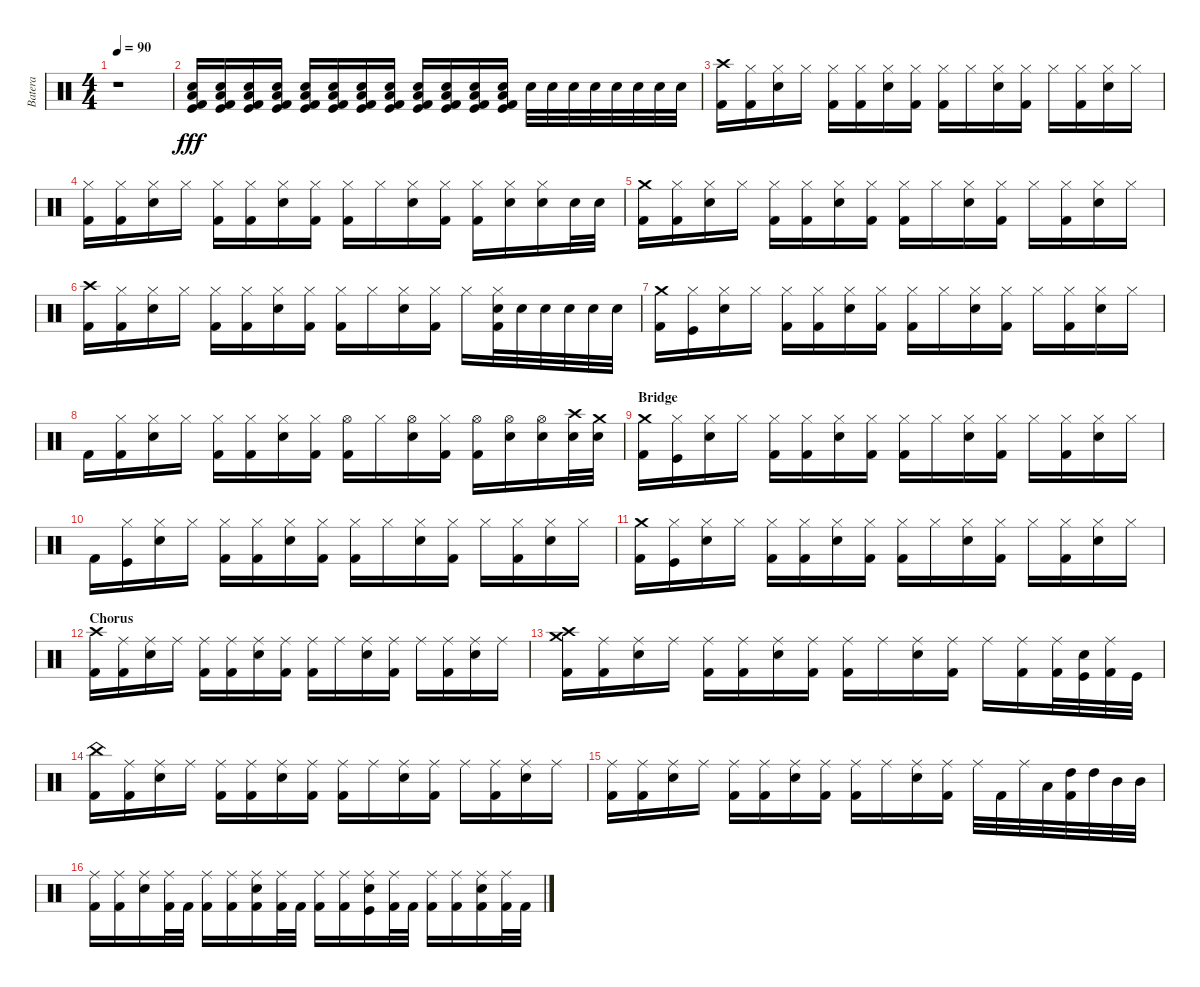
\track ("Batera" "Batera") {instrument percussion}
\staff {score}
\articulation defaults
\ts (4 4)
\tempo 90
\clef neutral
\ks c
r.1{dy fff volume 0} |
("Snare (hit) 2" "Low Floor Tom (hit)" "Kick (hit) 2" "Kick (hit)").16{volume 16} ("Snare (hit) 2" "Low Floor Tom (hit)" "Kick (hit) 2" "Kick (hit)").16 ("Snare (hit) 2" "Low Floor Tom (hit)" "Kick (hit) 2" "Kick (hit)").16 ("Snare (hit) 2" "Low Floor Tom (hit)" "Kick (hit) 2" "Kick (hit)").16 ("Snare (hit) 2" "Low Floor Tom (hit)" "Kick (hit) 2" "Kick (hit)").16 ("Snare (hit) 2" "Low Floor Tom (hit)" "Kick (hit) 2" "Kick (hit)").16 ("Snare (hit) 2" "Low Floor Tom (hit)" "Kick (hit) 2" "Kick (hit)").16 ("Snare (hit) 2" "Low Floor Tom (hit)" "Kick (hit) 2" "Kick (hit)").16 ("Snare (hit) 2" "Low Floor Tom (hit)" "Kick (hit) 2" "Kick (hit)").16 ("Snare (hit) 2" "Low Floor Tom (hit)" "Kick (hit) 2" "Kick (hit)").16 ("Snare (hit) 2" "Low Floor Tom (hit)" "Kick (hit) 2" "Kick (hit)").16 ("Snare (hit) 2" "Low Floor Tom (hit)" "Kick (hit) 2" "Kick (hit)").16 "Snare (hit) 2".32 "Snare (hit) 2".32 "Snare (hit) 2".32 "Snare (hit) 2".32 "Snare (hit) 2".32 "Snare (hit) 2".32 "Snare (hit) 2".32 "Snare (hit) 2".32 |
("Crash high (hit)" "Kick (hit) 2").16 ("Kick (hit) 2" "Hi-Hat (closed)").16 ("Snare (hit) 2" "Hi-Hat (closed)").16 "Hi-Hat (closed)".16 ("Kick (hit) 2" "Hi-Hat (closed)").16 ("Kick (hit) 2" "Hi-Hat (closed)").16 ("Snare (hit) 2" "Hi-Hat (closed)").16 ("Kick (hit) 2" "Hi-Hat (closed)").16 ("Kick (hit) 2" "Hi-Hat (closed)").16 "Hi-Hat (closed)".16 ("Snare (hit) 2" "Hi-Hat (closed)").16 ("Kick (hit) 2" "Hi-Hat (closed)").16 "Hi-Hat (closed)".16 ("Kick (hit) 2" "Hi-Hat (closed)").16 ("Snare (hit) 2" "Hi-Hat (closed)").16 "Hi-Hat (closed)".16 |
("Kick (hit) 2" "Hi-Hat (closed)").16 ("Kick (hit) 2" "Hi-Hat (closed)").16 ("Snare (hit) 2" "Hi-Hat (closed)").16 "Hi-Hat (closed)".16 ("Kick (hit) 2" "Hi-Hat (closed)").16 ("Kick (hit) 2" "Hi-Hat (closed)").16 ("Snare (hit) 2" "Hi-Hat (closed)").16 ("Kick (hit) 2" "Hi-Hat (closed)").16 ("Kick (hit) 2" "Hi-Hat (closed)").16 "Hi-Hat (closed)".16 ("Snare (hit) 2" "Hi-Hat (closed)").16 ("Kick (hit) 2" "Hi-Hat (closed)").16 ("Kick (hit) 2" "Hi-Hat (closed)").16 ("Snare (hit) 2" "Hi-Hat (closed)").16 ("Snare (hit) 2" "Hi-Hat (closed)").16 "Snare (hit) 2".32 "Snare (hit) 2".32 |
("Crash medium (hit)" "Kick (hit) 2").16 ("Kick (hit) 2" "Hi-Hat (closed)").16 ("Snare (hit) 2" "Hi-Hat (closed)").16 "Hi-Hat (closed)".16 ("Kick (hit) 2" "Hi-Hat (closed)").16 ("Kick (hit) 2" "Hi-Hat (closed)").16 ("Snare (hit) 2" "Hi-Hat (closed)").16 ("Kick (hit) 2" "Hi-Hat (closed)").16 ("Kick (hit) 2" "Hi-Hat (closed)").16 "Hi-Hat (closed)".16 ("Snare (hit) 2" "Hi-Hat (closed)").16 ("Kick (hit) 2" "Hi-Hat (closed)").16 "Hi-Hat (closed)".16 ("Kick (hit) 2" "Hi-Hat (closed)").16 ("Snare (hit) 2" "Hi-Hat (closed)").16 "Hi-Hat (closed)".16 |
("Crash high (hit)" "Kick (hit) 2").16 ("Kick (hit) 2" "Hi-Hat (closed)").16 ("Snare (hit) 2" "Hi-Hat (closed)").16 "Hi-Hat (closed)".16 ("Kick (hit) 2" "Hi-Hat (closed)").16 ("Kick (hit) 2" "Hi-Hat (closed)").16 ("Snare (hit) 2" "Hi-Hat (closed)").16 ("Kick (hit) 2" "Hi-Hat (closed)").16 ("Kick (hit) 2" "Hi-Hat (closed)").16 "Hi-Hat (closed)".16 ("Snare (hit) 2" "Hi-Hat (closed)").16 ("Kick (hit) 2" "Hi-Hat (closed)").16 "Hi-Hat (closed)".16 ("Snare (hit) 2" "Kick (hit) 2" "Hi-Hat (closed)").32 "Snare (hit) 2".32 "Snare (hit) 2".32 "Snare (hit) 2".32 "Snare (hit) 2".32 "Snare (hit) 2".32 |
("Crash medium (hit)" "Kick (hit) 2").16 ("Kick (hit)" "Hi-Hat (closed)").16 ("Snare (hit) 2" "Hi-Hat (closed)").16 "Hi-Hat (closed)".16 ("Kick (hit) 2" "Hi-Hat (closed)").16 ("Kick (hit) 2" "Hi-Hat (closed)").16 ("Snare (hit) 2" "Hi-Hat (closed)").16 ("Kick (hit) 2" "Hi-Hat (closed)").16 ("Kick (hit) 2" "Hi-Hat (closed)").16 "Hi-Hat (closed)".16 ("Snare (hit) 2" "Hi-Hat (closed)").16 ("Kick (hit) 2" "Hi-Hat (closed)").16 "Hi-Hat (closed)".16 ("Kick (hit) 2" "Hi-Hat (closed)").16 ("Snare (hit) 2" "Hi-Hat (closed)").16 "Hi-Hat (closed)".16 |
"Kick (hit) 2".16 ("Kick (hit) 2" "Hi-Hat (closed)").16 ("Snare (hit) 2" "Hi-Hat (closed)").16 "Hi-Hat (closed)".16 ("Kick (hit) 2" "Hi-Hat (closed)").16 ("Kick (hit) 2" "Hi-Hat (closed)").16 ("Snare (hit) 2" "Hi-Hat (closed)").16 ("Kick (hit) 2" "Hi-Hat (closed)").16 ("Kick (hit) 2" "Hi-Hat (open)").16 "Hi-Hat (closed)".16 ("Snare (hit) 2" "Hi-Hat (open)").16 ("Kick (hit) 2" "Hi-Hat (closed)").16 ("Kick (hit) 2" "Hi-Hat (open)").16 ("Snare (hit) 2" "Hi-Hat (open)").16 ("Snare (hit) 2" "Hi-Hat (open)").16 ("Crash high (hit)" "Snare (hit) 2").32 ("Crash medium (hit)" "Snare (hit) 2").32 |
\section ("" "Bridge")
("Crash medium (hit)" "Kick (hit) 2").16 ("Kick (hit)" "Hi-Hat (closed)").16 ("Snare (hit) 2" "Hi-Hat (closed)").16 "Hi-Hat (closed)".16 ("Kick (hit) 2" "Hi-Hat (closed)").16 ("Kick (hit) 2" "Hi-Hat (closed)").16 ("Snare (hit) 2" "Hi-Hat (closed)").16 ("Kick (hit) 2" "Hi-Hat (closed)").16 ("Kick (hit) 2" "Hi-Hat (closed)").16 "Hi-Hat (closed)".16 ("Snare (hit) 2" "Hi-Hat (closed)").16 ("Kick (hit) 2" "Hi-Hat (closed)").16 "Hi-Hat (closed)".16 ("Kick (hit) 2" "Hi-Hat (closed)").16 ("Snare (hit) 2" "Hi-Hat (closed)").16 "Hi-Hat (closed)".16 |
"Kick (hit) 2".16 ("Kick (hit)" "Hi-Hat (closed)").16 ("Snare (hit) 2" "Hi-Hat (closed)").16 "Hi-Hat (closed)".16 ("Kick (hit) 2" "Hi-Hat (closed)").16 ("Kick (hit) 2" "Hi-Hat (closed)").16 ("Snare (hit) 2" "Hi-Hat (closed)").16 ("Kick (hit) 2" "Hi-Hat (closed)").16 ("Kick (hit) 2" "Hi-Hat (closed)").16 "Hi-Hat (closed)".16 ("Snare (hit) 2" "Hi-Hat (closed)").16 ("Kick (hit) 2" "Hi-Hat (closed)").16 "Hi-Hat (closed)".16 ("Kick (hit) 2" "Hi-Hat (closed)").16 ("Snare (hit) 2" "Hi-Hat (closed)").16 "Hi-Hat (closed)".16 |
("Crash medium (hit)" "Kick (hit) 2").16 ("Kick (hit)" "Hi-Hat (closed)").16 ("Snare (hit) 2" "Hi-Hat (closed)").16 "Hi-Hat (closed)".16 ("Kick (hit) 2" "Hi-Hat (closed)").16 ("Kick (hit) 2" "Hi-Hat (closed)").16 ("Snare (hit) 2" "Hi-Hat (closed)").16 ("Kick (hit) 2" "Hi-Hat (closed)").16 ("Kick (hit) 2" "Hi-Hat (closed)").16 "Hi-Hat (closed)".16 ("Snare (hit) 2" "Hi-Hat (closed)").16 ("Kick (hit) 2" "Hi-Hat (closed)").16 "Hi-Hat (closed)".16 ("Kick (hit) 2" "Hi-Hat (closed)").16 ("Snare (hit) 2" "Hi-Hat (closed)").16 "Hi-Hat (closed)".16 |
\section ("" "Chorus")
("Crash high (hit)" "Kick (hit) 2").16 ("Kick (hit) 2" "Ride (middle)").16 ("Snare (hit) 2" "Ride (middle)").16 "Ride (middle)".16 ("Kick (hit) 2" "Ride (middle)").16 ("Kick (hit) 2" "Ride (middle)").16 ("Snare (hit) 2" "Ride (middle)").16 ("Kick (hit) 2" "Ride (middle)").16 ("Kick (hit) 2" "Ride (middle)").16 "Ride (middle)".16 ("Snare (hit) 2" "Ride (middle)").16 ("Kick (hit) 2" "Ride (middle)").16 "Ride (middle)".16 ("Kick (hit) 2" "Ride (middle)").16 ("Snare (hit) 2" "Ride (middle)").16 "Ride (middle)".16 |
("Crash medium (hit)" "Crash high (hit)" "Kick (hit) 2").16 ("Kick (hit) 2" "Ride (middle)").16 ("Snare (hit) 2" "Ride (middle)").16 "Ride (middle)".16 ("Kick (hit) 2" "Ride (middle)").16 ("Kick (hit) 2" "Ride (middle)").16 ("Snare (hit) 2" "Ride (middle)").16 ("Kick (hit) 2" "Ride (middle)").16 ("Kick (hit) 2" "Ride (middle)").16 "Ride (middle)".16 ("Snare (hit) 2" "Ride (middle)").16 ("Kick (hit) 2" "Ride (middle)").16 "Ride (middle)".16 ("Kick (hit) 2" "Ride (middle)").16 ("Kick (hit) 2" "Ride (middle)").32 ("Snare (hit) 2" "Kick (hit)").32 ("Kick (hit) 2" "Ride (middle)").32 "Kick (hit)".32 |
("China (hit)" "Kick (hit) 2").16 ("Kick (hit) 2" "Ride (middle)").16 ("Snare (hit) 2" "Ride (middle)").16 "Ride (middle)".16 ("Kick (hit) 2" "Ride (middle)").16 ("Kick (hit) 2" "Ride (middle)").16 ("Snare (hit) 2" "Ride (middle)").16 ("Kick (hit) 2" "Ride (middle)").16 ("Kick (hit) 2" "Ride (middle)").16 "Ride (middle)".16 ("Snare (hit) 2" "Ride (middle)").16 ("Kick (hit) 2" "Ride (middle)").16 "Ride (middle)".16 ("Kick (hit) 2" "Ride (middle)").16 ("Snare (hit) 2" "Ride (middle)").16 "Ride (middle)".16 |
("Kick (hit) 2" "Ride (middle)").16 ("Kick (hit) 2" "Ride (middle)").16 ("Snare (hit) 2" "Ride (middle)").16 "Ride (middle)".16 ("Kick (hit) 2" "Ride (middle)").16 ("Kick (hit) 2" "Ride (middle)").16 ("Snare (hit) 2" "Ride (middle)").16 ("Kick (hit) 2" "Ride (middle)").16 ("Kick (hit) 2" "Ride (middle)").16 "Ride (middle)".16 ("Snare (hit) 2" "Ride (middle)").16 ("Kick (hit) 2" "Ride (middle)").16 "Ride (middle)".32 "Kick (hit) 2".32 "Ride (middle)".32 "Low Floor Tom (hit)".32 ("High Tom (hit)" "Kick (hit) 2").32 "High Tom (hit)".32 "Mid Tom (hit)".32 "Mid Tom (hit)".32 |
("Kick (hit) 2" "Ride (middle)").16 ("Kick (hit) 2" "Ride (middle)").16 ("Snare (hit) 2" "Ride (middle)").16 ("Kick (hit) 2" "Ride (middle)").32 "Kick (hit) 2".32 ("Kick (hit) 2" "Ride (middle)").16 ("Kick (hit) 2" "Ride (middle)").16 ("Snare (hit) 2" "Kick (hit) 2" "Ride (middle)").16 ("Kick (hit) 2" "Ride (middle)").32 "Kick (hit) 2".32 ("Kick (hit) 2" "Ride (middle)").16 ("Kick (hit) 2" "Ride (middle)").16 ("Snare (hit) 2" "Kick (hit)" "Ride (middle)").16 ("Kick (hit) 2" "Ride (middle)").32 "Kick (hit) 2".32 ("Kick (hit) 2" "Ride (middle)").16 ("Kick (hit) 2" "Ride (middle)").16 ("Snare (hit) 2" "Kick (hit) 2" "Ride (middle)").16 ("Kick (hit) 2" "Ride (middle)").32 "Kick (hit) 2".32
